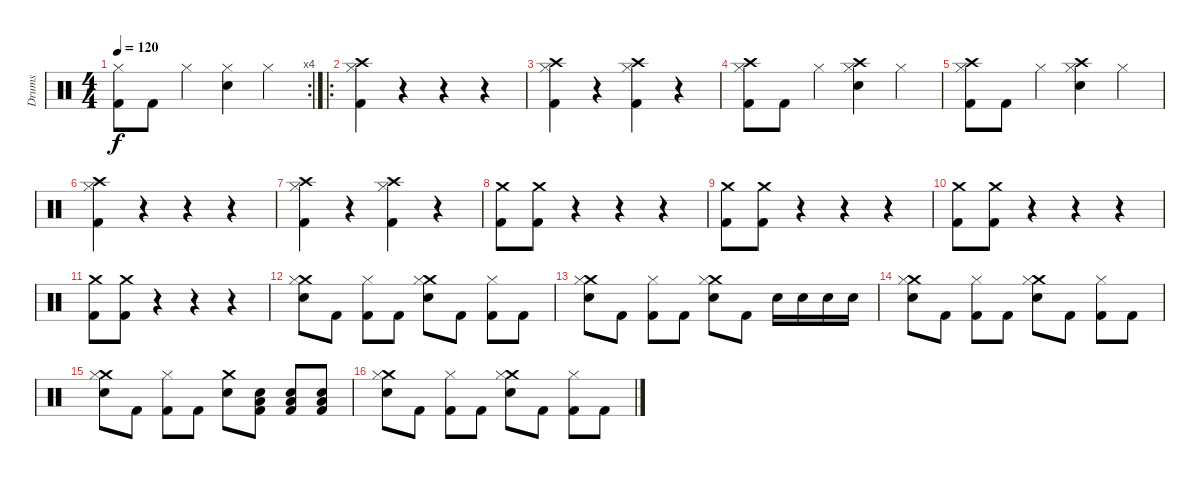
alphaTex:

\track ("Drums" "Drums") {instrument percussion}
\staff {score}
\articulation defaults
\rc 4
\ts (4 4)
\tempo 120
\clef neutral
\ks c
("Kick (hit) 2" "Hi-Hat (closed)").8{dy f} "Kick (hit) 2".8 "Hi-Hat (closed)".4 ("Electric Snare (hit)" "Hi-Hat (closed)").4 "Hi-Hat (closed)".4 |
\ro
("Kick (hit) 2" "Crash high (hit)" "Hi-Hat (closed)").4 r.4 r.4 r.4 |
("Kick (hit) 2" "Crash high (hit)" "Hi-Hat (closed)").4 r.4 ("Kick (hit) 2" "Crash high (hit)" "Hi-Hat (closed)").4 r.4 |
("Crash high (hit)" "Kick (hit) 2" "Hi-Hat (closed)").8 "Kick (hit) 2".8 "Hi-Hat (closed)".4 ("Electric Snare (hit)" "Crash high (hit)" "Hi-Hat (closed)").4 "Hi-Hat (closed)".4 |
("Kick (hit) 2" "Crash high (hit)" "Hi-Hat (closed)").8 "Kick (hit) 2".8 "Hi-Hat (closed)".4 ("Electric Snare (hit)" "Crash high (hit)" "Hi-Hat (closed)").4 "Hi-Hat (closed)".4 |
("Kick (hit) 2" "Crash high (hit)" "Hi-Hat (closed)").4 r.4 r.4 r.4 |
("Kick (hit) 2" "Crash high (hit)" "Hi-Hat (closed)").4 r.4 ("Kick (hit) 2" "Crash high (hit)" "Hi-Hat (closed)").4 r.4 |
("Kick (hit) 2" "Crash medium (hit)").8 ("Kick (hit) 2" "Crash medium (hit)").8 r.4 r.4 r.4 |
("Kick (hit) 2" "Crash medium (hit)").8 ("Kick (hit) 2" "Crash medium (hit)").8 r.4 r.4 r.4 |
("Kick (hit) 2" "Crash medium (hit)").8 ("Kick (hit) 2" "Crash medium (hit)").8 r.4 r.4 r.4 |
("Kick (hit) 2" "Crash medium (hit)").8 ("Kick (hit) 2" "Crash medium (hit)").8 r.4 r.4 r.4 |
("Electric Snare (hit)" "Crash medium (hit)" "Hi-Hat (closed)").8 "Kick (hit) 2".8 ("Kick (hit) 2" "Hi-Hat (closed)").8 "Kick (hit) 2".8 ("Electric Snare (hit)" "Crash medium (hit)" "Hi-Hat (closed)").8 "Kick (hit) 2".8 ("Kick (hit) 2" "Hi-Hat (closed)").8 "Kick (hit) 2".8 |
("Electric Snare (hit)" "Crash medium (hit)" "Hi-Hat (closed)").8 "Kick (hit) 2".8 ("Kick (hit) 2" "Hi-Hat (closed)").8 "Kick (hit) 2".8 ("Electric Snare (hit)" "Crash medium (hit)" "Hi-Hat (closed)").8 "Kick (hit) 2".8 "Electric Snare (hit)".16 "Electric Snare (hit)".16 "Electric Snare (hit)".16 "Electric Snare (hit)".16 |
("Electric Snare (hit)" "Crash medium (hit)" "Hi-Hat (closed)").8 "Kick (hit) 2".8 ("Kick (hit) 2" "Hi-Hat (closed)").8 "Kick (hit) 2".8 ("Electric Snare (hit)" "Crash medium (hit)" "Hi-Hat (closed)").8 "Kick (hit) 2".8 ("Kick (hit) 2" "Hi-Hat (closed)").8 "Kick (hit) 2".8 |
("Electric Snare (hit)" "Crash medium (hit)" "Hi-Hat (closed)").8 "Kick (hit) 2".8 ("Kick (hit) 2" "Hi-Hat (closed)").8 "Kick (hit) 2".8 ("Electric Snare (hit)" "Crash medium (hit)").8 ("Kick (hit) 2" "Electric Snare (hit)" "Low Tom (hit)").8 ("Kick (hit) 2" "Electric Snare (hit)" "Low Tom (hit)").8 ("Kick (hit) 2" "Electric Snare (hit)" "Low Tom (hit)").8 |
("Electric Snare (hit)" "Crash medium (hit)" "Hi-Hat (closed)").8 "Kick (hit) 2".8 ("Kick (hit) 2" "Hi-Hat (closed)").8 "Kick (hit) 2".8 ("Electric Snare (hit)" "Crash medium (hit)" "Hi-Hat (closed)").8 "Kick (hit) 2".8 ("Kick (hit) 2" "Hi-Hat (closed)").8 "Kick (hit) 2".8
